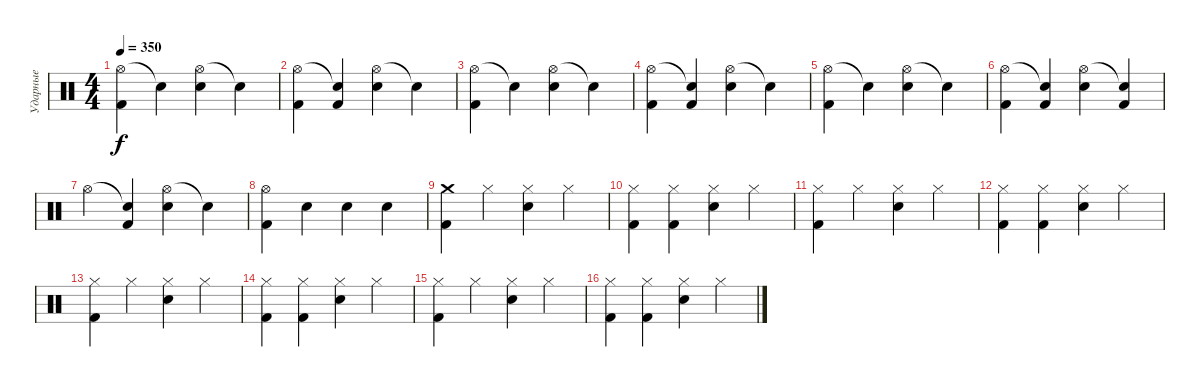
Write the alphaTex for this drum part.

\track ("Ударные" "Ударные") {instrument percussion}
\staff {score}
\articulation defaults
\ts (4 4)
\tempo 350
\clef neutral
\ks c
("Hi-Hat (open)" "Kick (hit) 2").4{dy f} "Snare (hit)"{t}.4 ("Hi-Hat (open)" "Electric Snare (hit)").4 "Snare (hit)"{t}.4 |
("Hi-Hat (open)" "Kick (hit) 2").4 ("Snare (hit)"{t} "Kick (hit) 2").4 ("Hi-Hat (open)" "Electric Snare (hit)").4 "Snare (hit)"{t}.4 |
("Hi-Hat (open)" "Kick (hit) 2").4 "Snare (hit)"{t}.4 ("Hi-Hat (open)" "Electric Snare (hit)").4 "Snare (hit)"{t}.4 |
("Hi-Hat (open)" "Kick (hit) 2").4 ("Snare (hit)"{t} "Kick (hit) 2").4 ("Hi-Hat (open)" "Electric Snare (hit)").4 "Snare (hit)"{t}.4 |
("Hi-Hat (open)" "Kick (hit) 2").4 "Snare (hit)"{t}.4 ("Hi-Hat (open)" "Electric Snare (hit)").4 "Snare (hit)"{t}.4 |
("Hi-Hat (open)" "Kick (hit) 2").4 ("Snare (hit)"{t} "Kick (hit) 2").4 ("Hi-Hat (open)" "Electric Snare (hit)").4 ("Snare (hit)"{t} "Kick (hit) 2").4 |
"Hi-Hat (open)".4 ("Snare (hit)"{t} "Kick (hit) 2").4 ("Hi-Hat (open)" "Electric Snare (hit)").4 "Snare (hit)"{t}.4 |
("Hi-Hat (open)" "Kick (hit) 2").4 "Electric Snare (hit)".4 "Electric Snare (hit)".4 "Electric Snare (hit)".4 |
("Crash medium (hit)" "Kick (hit) 2").4 "Hi-Hat (closed)".4 ("Hi-Hat (closed)" "Electric Snare (hit)").4 "Hi-Hat (closed)".4 |
("Hi-Hat (closed)" "Kick (hit) 2").4 ("Hi-Hat (closed)" "Kick (hit) 2").4 ("Hi-Hat (closed)" "Electric Snare (hit)").4 "Hi-Hat (closed)".4 |
("Hi-Hat (closed)" "Kick (hit) 2").4 "Hi-Hat (closed)".4 ("Hi-Hat (closed)" "Electric Snare (hit)").4 "Hi-Hat (closed)".4 |
("Hi-Hat (closed)" "Kick (hit) 2").4 ("Hi-Hat (closed)" "Kick (hit) 2").4 ("Hi-Hat (closed)" "Electric Snare (hit)").4 "Hi-Hat (closed)".4 |
("Hi-Hat (closed)" "Kick (hit) 2").4 "Hi-Hat (closed)".4 ("Hi-Hat (closed)" "Electric Snare (hit)").4 "Hi-Hat (closed)".4 |
("Hi-Hat (closed)" "Kick (hit) 2").4 ("Hi-Hat (closed)" "Kick (hit) 2").4 ("Hi-Hat (closed)" "Electric Snare (hit)").4 "Hi-Hat (closed)".4 |
("Hi-Hat (closed)" "Kick (hit) 2").4 "Hi-Hat (closed)".4 ("Hi-Hat (closed)" "Electric Snare (hit)").4 "Hi-Hat (closed)".4 |
("Hi-Hat (closed)" "Kick (hit) 2").4 ("Hi-Hat (closed)" "Kick (hit) 2").4 ("Hi-Hat (closed)" "Electric Snare (hit)").4 "Hi-Hat (closed)".4
